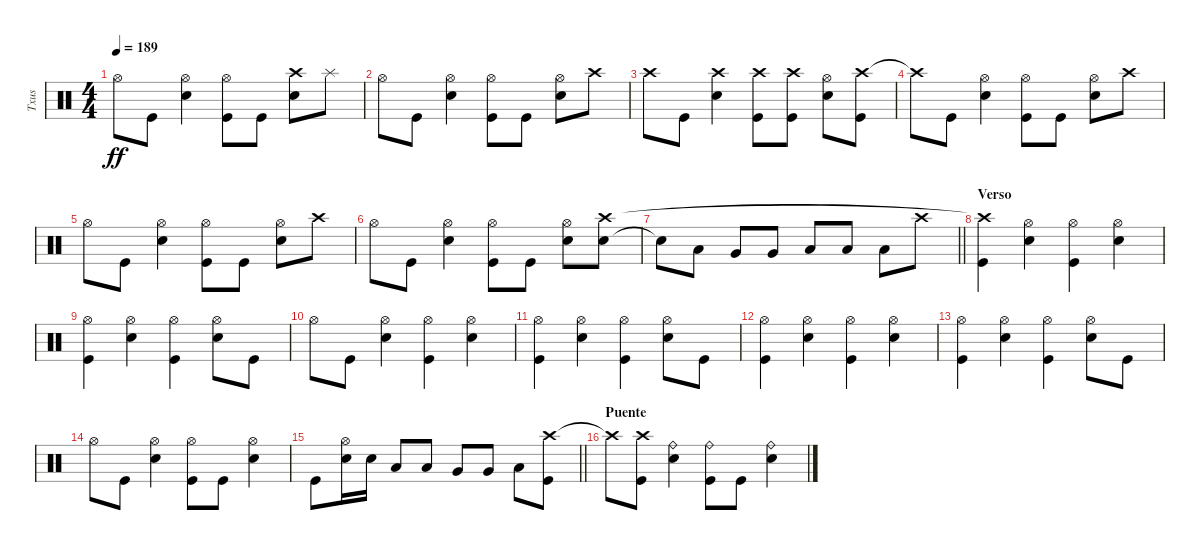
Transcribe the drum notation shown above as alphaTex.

\track ("Txus" "Txus") {instrument percussion}
\staff {score}
\articulation defaults
\ts (4 4)
\tempo 189
\clef neutral
\ks c "Hi-Hat (open)".8{dy ff} "Kick (hit)".8
("Snare (hit) 2" "Hi-Hat (open)").4 ("Kick (hit)" "Hi-Hat (open)").8 "Kick (hit)".8 ("Snare (hit) 2" "Crash high (hit)").8 "Splash (hit)".8 |
"Hi-Hat (open)".8 "Kick (hit)".8 ("Snare (hit) 2" "Hi-Hat (open)").4 ("Kick (hit)" "Hi-Hat (open)").8 "Kick (hit)".8 ("Snare (hit) 2" "Hi-Hat (open)").8 "Crash high (hit)".8 |
"Crash high (hit)".8 "Kick (hit)".8 ("Snare (hit) 2" "Crash high (hit)").4 ("Kick (hit)" "Crash high (hit)").8 ("Kick (hit)" "Crash high (hit)").8 ("Snare (hit) 2" "Hi-Hat (open)").8 ("Crash high (hit)" "Kick (hit)").8 |
"Crash high (hit)"{t}.8 "Kick (hit)".8 ("Snare (hit) 2" "Hi-Hat (open)").4 ("Kick (hit)" "Hi-Hat (open)").8 "Kick (hit)".8 ("Snare (hit) 2" "Hi-Hat (open)").8 "Crash high (hit)".8 |
"Hi-Hat (open)".8 "Kick (hit)".8 ("Snare (hit) 2" "Hi-Hat (open)").4 ("Kick (hit)" "Hi-Hat (open)").8 "Kick (hit)".8 ("Snare (hit) 2" "Hi-Hat (open)").8 "Crash high (hit)".8 |
"Hi-Hat (open)".8 "Kick (hit)".8 ("Snare (hit) 2" "Hi-Hat (open)").4 ("Kick (hit)" "Hi-Hat (open)").8 "Kick (hit)".8 ("Snare (hit) 2" "Hi-Hat (open)").8 ("Snare (hit) 2" "Crash high (hit)").8 |
\barLineRight lightlight "Snare (hit) 2"{t}.8 "Low Tom (hit)".8 "Very Low Tom (hit)".8 "Very Low Tom (hit)".8 "Low Floor Tom (hit)".8 "Low Floor Tom (hit)".8 "Low Floor Tom (hit)".8 "Crash high (hit)".8
|
\section ("" "Verso")
("Kick (hit)" "Crash high (hit)"{t}).4 ("Hi-Hat (open)" "Snare (hit) 2").4 ("Hi-Hat (open)" "Kick (hit)").4 ("Hi-Hat (open)" "Snare (hit) 2").4 |
("Kick (hit)" "Hi-Hat (open)").4 ("Hi-Hat (open)" "Snare (hit) 2").4 ("Hi-Hat (open)" "Kick (hit)").4 ("Hi-Hat (open)" "Snare (hit) 2").8 "Kick (hit)".8 |
"Hi-Hat (open)".8 "Kick (hit)".8 ("Hi-Hat (open)" "Snare (hit) 2").4 ("Hi-Hat (open)" "Kick (hit)").4 ("Hi-Hat (open)" "Snare (hit) 2").4 |
("Kick (hit)" "Hi-Hat (open)").4 ("Hi-Hat (open)" "Snare (hit) 2").4 ("Hi-Hat (open)" "Kick (hit)").4 ("Hi-Hat (open)" "Snare (hit) 2").8 "Kick (hit)".8 |
("Kick (hit)" "Hi-Hat (open)").4 ("Hi-Hat (open)" "Snare (hit) 2").4 ("Hi-Hat (open)" "Kick (hit)").4 ("Hi-Hat (open)" "Snare (hit) 2").4 |
("Kick (hit)" "Hi-Hat (open)").4 ("Hi-Hat (open)" "Snare (hit) 2").4 ("Hi-Hat (open)" "Kick (hit)").4 ("Hi-Hat (open)" "Snare (hit) 2").8 "Kick (hit)".8 |
"Hi-Hat (open)".8 "Kick (hit)".8 ("Hi-Hat (open)" "Snare (hit) 2").4 ("Hi-Hat (open)" "Kick (hit)").8 "Kick (hit)".8 ("Hi-Hat (open)" "Snare (hit) 2").4 |
\barLineRight lightlight "Kick (hit)".8
("Snare (hit) 2" "Hi-Hat (open)").16 "Snare (hit) 2".16 "Low Tom (hit)".8 "Low Tom (hit)".8 "Very Low Tom (hit)".8 "Very Low Tom (hit)".8 "Low Floor Tom (hit)".8 ("Crash high (hit)" "Kick (hit)").8 |
\section ("" "Puente")
"Crash high (hit)"{t}.8 ("Kick (hit)" "Crash high (hit)").8 ("Ride (bell)" "Snare (hit) 2").4 ("Ride (bell)" "Kick (hit)").8 "Kick (hit)".8 ("Ride (bell)" "Snare (hit) 2").4
